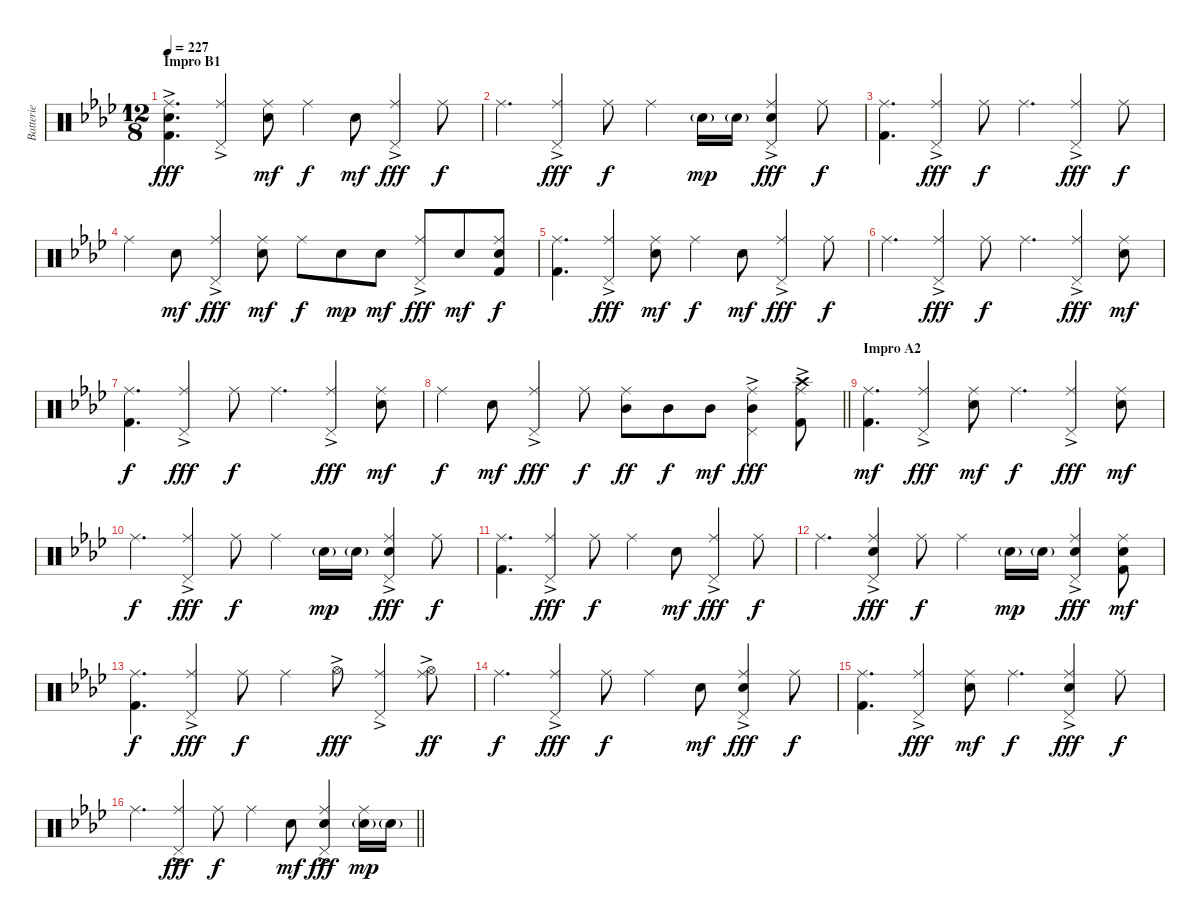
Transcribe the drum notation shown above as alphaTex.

\track ("Batterie" "Batterie") {instrument percussion}
\staff {score}
\articulation defaults
\ts (12 8)
\section ("" "Impro B1")
\tempo 227
\clef neutral
\ks fminor
("Ride (middle)" "Snare (hit) 2" "Kick (hit) 2"{ac}).4{d dy fff volume 12 balance 8} ("Ride (middle)" "Pedal Hi-Hat (hit)"{ac}).4 ("Ride (middle)" "Snare (hit) 2").8{dy mf} "Ride (middle)".4{dy f} "Snare (hit) 2".8{dy mf} ("Ride (middle)" "Pedal Hi-Hat (hit)"{ac}).4{dy fff} "Ride (middle)".8{dy f} |
"Ride (middle)".4{d} ("Ride (middle)" "Pedal Hi-Hat (hit)"{ac}).4{dy fff} "Ride (middle)".8{dy f} "Ride (middle)".4 "Snare (hit) 2"{g}.16{dy mp} "Snare (hit) 2"{g}.16 ("Ride (middle)" "Pedal Hi-Hat (hit)"{ac} "Snare (hit) 2"{ac}).4{dy fff} "Ride (middle)".8{dy f} |
("Ride (middle)" "Kick (hit) 2").4{d} ("Ride (middle)" "Pedal Hi-Hat (hit)"{ac}).4{dy fff} "Ride (middle)".8{dy f} "Ride (middle)".4{d} ("Ride (middle)" "Pedal Hi-Hat (hit)"{ac}).4{dy fff} "Ride (middle)".8{dy f} |
"Ride (middle)".4 "Snare (hit) 2".8{dy mf} ("Ride (middle)" "Pedal Hi-Hat (hit)"{ac}).4{dy fff} ("Ride (middle)" "Snare (hit) 2").8{dy mf} "Ride (middle)".8{dy f} "Snare (hit) 2".8{dy mp} "Snare (hit) 2".8{dy mf} ("Ride (middle)" "Pedal Hi-Hat (hit)"{ac}).8{dy fff} "Snare (hit) 2".8{dy mf} ("Ride (middle)" "Snare (hit) 2" "Kick (hit) 2").8{dy f} |
("Ride (middle)" "Kick (hit) 2").4{d} ("Ride (middle)" "Pedal Hi-Hat (hit)"{ac}).4{dy fff} ("Ride (middle)" "Snare (hit) 2").8{dy mf} "Ride (middle)".4{dy f} "Snare (hit) 2".8{dy mf} ("Ride (middle)" "Pedal Hi-Hat (hit)"{ac}).4{dy fff} "Ride (middle)".8{dy f} |
"Ride (middle)".4{d} ("Ride (middle)" "Pedal Hi-Hat (hit)"{ac}).4{dy fff} "Ride (middle)".8{dy f} "Ride (middle)".4{d} ("Ride (middle)" "Pedal Hi-Hat (hit)"{ac}).4{dy fff} ("Ride (middle)" "Snare (hit) 2").8{dy mf} |
("Ride (middle)" "Kick (hit) 2").4{d dy f} ("Ride (middle)" "Pedal Hi-Hat (hit)"{ac}).4{dy fff} "Ride (middle)".8{dy f} "Ride (middle)".4{d} ("Ride (middle)" "Pedal Hi-Hat (hit)"{ac}).4{dy fff} ("Ride (middle)" "Snare (hit) 2").8{dy mf} |
\barLineRight lightlight "Ride (middle)".4{dy f} "Snare (hit) 2".8{dy mf}
("Ride (middle)" "Pedal Hi-Hat (hit)"{ac}).4{dy fff} "Ride (middle)".8{dy f} ("Ride (middle)" "Mid Tom (hit)").8{dy ff} "Mid Tom (hit)".8{dy f} "Mid Tom (hit)".8{dy mf} ("Ride (middle)" "Pedal Hi-Hat (hit)"{ac} "Mid Tom (hit)").4{dy fff} ("Ride (middle)" "Crash high (hit)"{ac} "Kick (hit) 2").8 |
\section ("" "Impro A2")
("Ride (middle)" "Kick (hit) 2").4{d dy mf volume 11 balance 8} ("Ride (middle)" "Pedal Hi-Hat (hit)"{ac}).4{dy fff} ("Ride (middle)" "Snare (hit) 2").8{dy mf} "Ride (middle)".4{d dy f} ("Ride (middle)" "Pedal Hi-Hat (hit)"{ac}).4{dy fff} ("Ride (middle)" "Snare (hit) 2").8{dy mf} |
"Ride (middle)".4{d dy f} ("Ride (middle)" "Pedal Hi-Hat (hit)"{ac}).4{dy fff} "Ride (middle)".8{dy f} "Ride (middle)".4 "Snare (hit) 2"{g}.16{dy mp} "Snare (hit) 2"{g}.16 ("Ride (middle)" "Pedal Hi-Hat (hit)"{ac} "Snare (hit) 2").4{dy fff} "Ride (middle)".8{dy f} |
("Ride (middle)" "Kick (hit) 2").4{d} ("Ride (middle)" "Pedal Hi-Hat (hit)"{ac}).4{dy fff} "Ride (middle)".8{dy f} "Ride (middle)".4 "Snare (hit) 2".8{dy mf} ("Ride (middle)" "Pedal Hi-Hat (hit)"{ac}).4{dy fff} "Ride (middle)".8{dy f} |
"Ride (middle)".4{d} ("Ride (middle)" "Pedal Hi-Hat (hit)"{ac} "Snare (hit) 2").4{dy fff} "Ride (middle)".8{dy f} "Ride (middle)".4 "Snare (hit) 2"{g}.16{dy mp} "Snare (hit) 2"{g}.16 ("Ride (middle)" "Pedal Hi-Hat (hit)"{ac} "Snare (hit) 2"{ac}).4{dy fff} ("Ride (middle)" "Snare (hit) 2" "Kick (hit) 2").8{dy mf} |
("Ride (middle)" "Kick (hit) 2").4{d dy f} ("Ride (middle)" "Pedal Hi-Hat (hit)"{ac}).4{dy fff} "Ride (middle)".8{dy f} "Ride (middle)".4 "Hi-Hat (open)"{ac}.8{dy fff} ("Ride (middle)" "Pedal Hi-Hat (hit)"{ac}).4 ("Ride (middle)" "Hi-Hat (open)"{ac}).8{dy ff} |
"Ride (middle)".4{d dy f} ("Ride (middle)" "Pedal Hi-Hat (hit)"{ac}).4{dy fff} "Ride (middle)".8{dy f} "Ride (middle)".4 "Snare (hit) 2".8{dy mf} ("Ride (middle)" "Pedal Hi-Hat (hit)"{ac} "Snare (hit) 2").4{dy fff} "Ride (middle)".8{dy f} |
("Ride (middle)" "Kick (hit) 2").4{d} ("Ride (middle)" "Pedal Hi-Hat (hit)"{ac}).4{dy fff} ("Ride (middle)" "Snare (hit) 2").8{dy mf} "Ride (middle)".4{d dy f} ("Ride (middle)" "Pedal Hi-Hat (hit)"{ac} "Snare (hit) 2").4{dy fff} "Ride (middle)".8{dy f} |
\barLineRight lightlight "Ride (middle)".4{d}
("Ride (middle)" "Pedal Hi-Hat (hit)"{ac}).4{dy fff} "Ride (middle)".8{dy f} "Ride (middle)".4 "Snare (hit) 2".8{dy mf} ("Ride (middle)" "Pedal Hi-Hat (hit)"{ac} "Snare (hit) 2").4{dy fff} ("Ride (middle)" "Snare (hit) 2"{g}).16{dy mp} "Snare (hit) 2"{g}.16
